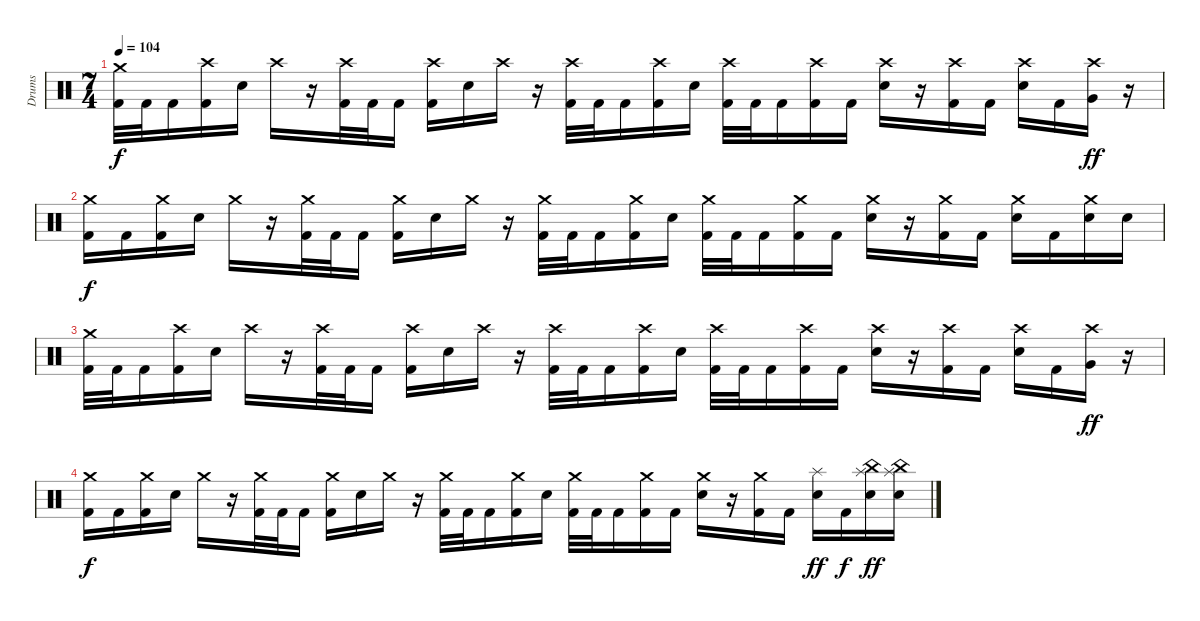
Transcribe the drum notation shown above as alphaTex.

\track ("Drums" "Drums") {instrument percussion}
\staff {score}
\articulation defaults
\ts (7 4)
\tempo 104
\clef neutral
\ks c
("Crash medium (hit)" "Kick (hit) 2").32{dy f} "Kick (hit) 2".32 "Kick (hit) 2".16 ("Crash high (hit)" "Kick (hit) 2").16 "Snare (hit) 2".16 "Crash high (hit)".16 r.16 ("Crash high (hit)" "Kick (hit) 2").32 "Kick (hit) 2".32 "Kick (hit) 2".16 ("Crash high (hit)" "Kick (hit) 2").16 "Snare (hit) 2".16 "Crash high (hit)".16 r.16 ("Crash high (hit)" "Kick (hit) 2").32 "Kick (hit) 2".32 "Kick (hit) 2".16 ("Crash high (hit)" "Kick (hit) 2").16 "Snare (hit) 2".16 ("Crash high (hit)" "Kick (hit) 2").32 "Kick (hit) 2".32 "Kick (hit) 2".16 ("Crash high (hit)" "Kick (hit) 2").16 "Kick (hit) 2".16 ("Crash high (hit)" "Snare (hit) 2").16 r.16 ("Crash high (hit)" "Kick (hit) 2").16 "Kick (hit) 2".16 ("Crash high (hit)" "Snare (hit) 2").16 "Kick (hit) 2".16 ("Crash high (hit)" "Very Low Tom (hit)").16{dy ff} r.16 |
("Crash medium (hit)" "Kick (hit) 2").16{dy f} "Kick (hit) 2".16 ("Crash medium (hit)" "Kick (hit) 2").16 "Snare (hit) 2".16 "Crash medium (hit)".16 r.16 ("Crash medium (hit)" "Kick (hit) 2").32 "Kick (hit) 2".32 "Kick (hit) 2".16 ("Crash medium (hit)" "Kick (hit) 2").16 "Snare (hit) 2".16 "Crash medium (hit)".16 r.16 ("Crash medium (hit)" "Kick (hit) 2").32 "Kick (hit) 2".32 "Kick (hit) 2".16 ("Crash medium (hit)" "Kick (hit) 2").16 "Snare (hit) 2".16 ("Crash medium (hit)" "Kick (hit) 2").32 "Kick (hit) 2".32 "Kick (hit) 2".16 ("Crash medium (hit)" "Kick (hit) 2").16 "Kick (hit) 2".16 ("Crash medium (hit)" "Snare (hit) 2").16 r.16 ("Crash medium (hit)" "Kick (hit) 2").16 "Kick (hit) 2".16 ("Crash medium (hit)" "Snare (hit) 2").16 "Kick (hit) 2".16 ("Crash medium (hit)" "Snare (hit) 2").16 "Snare (hit) 2".16 |
("Crash medium (hit)" "Kick (hit) 2").32 "Kick (hit) 2".32 "Kick (hit) 2".16 ("Crash high (hit)" "Kick (hit) 2").16 "Snare (hit) 2".16 "Crash high (hit)".16 r.16 ("Crash high (hit)" "Kick (hit) 2").32 "Kick (hit) 2".32 "Kick (hit) 2".16 ("Crash high (hit)" "Kick (hit) 2").16 "Snare (hit) 2".16 "Crash high (hit)".16 r.16 ("Crash high (hit)" "Kick (hit) 2").32 "Kick (hit) 2".32 "Kick (hit) 2".16 ("Crash high (hit)" "Kick (hit) 2").16 "Snare (hit) 2".16 ("Crash high (hit)" "Kick (hit) 2").32 "Kick (hit) 2".32 "Kick (hit) 2".16 ("Crash high (hit)" "Kick (hit) 2").16 "Kick (hit) 2".16 ("Crash high (hit)" "Snare (hit) 2").16 r.16 ("Crash high (hit)" "Kick (hit) 2").16 "Kick (hit) 2".16 ("Crash high (hit)" "Snare (hit) 2").16 "Kick (hit) 2".16 ("Crash high (hit)" "Very Low Tom (hit)").16{dy ff} r.16 |
("Crash medium (hit)" "Kick (hit) 2").16{dy f} "Kick (hit) 2".16 ("Crash medium (hit)" "Kick (hit) 2").16 "Snare (hit) 2".16 "Crash medium (hit)".16 r.16 ("Crash medium (hit)" "Kick (hit) 2").32 "Kick (hit) 2".32 "Kick (hit) 2".16 ("Crash medium (hit)" "Kick (hit) 2").16 "Snare (hit) 2".16 "Crash medium (hit)".16 r.16 ("Crash medium (hit)" "Kick (hit) 2").32 "Kick (hit) 2".32 "Kick (hit) 2".16 ("Crash medium (hit)" "Kick (hit) 2").16 "Snare (hit) 2".16 ("Crash medium (hit)" "Kick (hit) 2").32 "Kick (hit) 2".32 "Kick (hit) 2".16 ("Crash medium (hit)" "Kick (hit) 2").16 "Kick (hit) 2".16 ("Crash medium (hit)" "Snare (hit) 2").16 r.16 ("Crash medium (hit)" "Kick (hit) 2").16 "Kick (hit) 2".16 ("Splash (hit)" "Snare (hit) 2").16{dy ff} "Kick (hit) 2".16{dy f} ("China (hit)" "Splash (hit)" "Snare (hit) 2").16{dy ff} ("China (hit)" "Splash (hit)" "Snare (hit) 2").16
